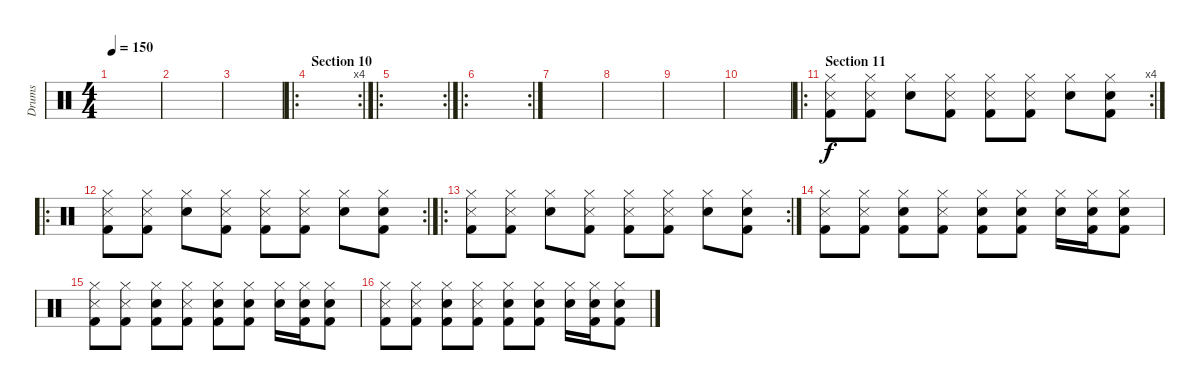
\track ("Drums" "Drums") {instrument percussion}
\staff {score}
\articulation defaults
\ts (4 4)
\tempo 150
\clef neutral
\ks c
|
|
|
\ro
\rc 4
\section ("" "Section 10")
|
\ro
\rc 2
|
\ro
\rc 2
|
|
|
|
|
\ro
\rc 4
\section ("" "Section 11")
("Hi-Hat (closed)" "Snare (side stick) 3" "Kick (hit) 2").8 ("Hi-Hat (closed)" "Snare (side stick) 3" "Kick (hit) 2").8 ("Hi-Hat (closed)" "Snare (hit) 2").8 ("Hi-Hat (closed)" "Snare (side stick) 3" "Kick (hit) 2").8 ("Hi-Hat (closed)" "Snare (side stick) 3" "Kick (hit) 2").8 ("Hi-Hat (closed)" "Snare (side stick) 3" "Kick (hit) 2").8 ("Hi-Hat (closed)" "Snare (hit) 2").8 ("Hi-Hat (closed)" "Snare (hit) 2" "Kick (hit) 2").8 |
\ro
\rc 2
("Hi-Hat (closed)" "Snare (side stick) 3" "Kick (hit) 2").8 ("Hi-Hat (closed)" "Snare (side stick) 3" "Kick (hit) 2").8 ("Hi-Hat (closed)" "Snare (hit) 2").8 ("Hi-Hat (closed)" "Snare (side stick) 3" "Kick (hit) 2").8 ("Hi-Hat (closed)" "Snare (side stick) 3" "Kick (hit) 2").8 ("Hi-Hat (closed)" "Snare (side stick) 3" "Kick (hit) 2").8 ("Hi-Hat (closed)" "Snare (hit) 2").8 ("Hi-Hat (closed)" "Snare (hit) 2" "Kick (hit) 2").8 |
\ro
\rc 2
("Hi-Hat (closed)" "Snare (side stick) 3" "Kick (hit) 2").8 ("Hi-Hat (closed)" "Snare (side stick) 3" "Kick (hit) 2").8 ("Hi-Hat (closed)" "Snare (hit) 2").8 ("Hi-Hat (closed)" "Snare (side stick) 3" "Kick (hit) 2").8 ("Hi-Hat (closed)" "Snare (side stick) 3" "Kick (hit) 2").8 ("Hi-Hat (closed)" "Snare (side stick) 3" "Kick (hit) 2").8 ("Hi-Hat (closed)" "Snare (hit) 2").8 ("Hi-Hat (closed)" "Snare (hit) 2" "Kick (hit) 2").8 |
("Hi-Hat (closed)" "Snare (side stick) 3" "Kick (hit) 2").8 ("Hi-Hat (closed)" "Snare (side stick) 3" "Kick (hit) 2").8 ("Hi-Hat (closed)" "Snare (hit) 2" "Kick (hit) 2").8 ("Hi-Hat (closed)" "Snare (side stick) 3" "Kick (hit) 2").8 ("Hi-Hat (closed)" "Snare (hit) 2" "Kick (hit) 2").8 ("Hi-Hat (closed)" "Snare (hit) 2" "Kick (hit) 2").8 ("Hi-Hat (closed)" "Snare (hit) 2").16 ("Hi-Hat (closed)" "Snare (hit) 2" "Kick (hit) 2").16 ("Hi-Hat (closed)" "Snare (hit) 2" "Kick (hit) 2").8 |
("Hi-Hat (closed)" "Snare (side stick) 3" "Kick (hit) 2").8 ("Hi-Hat (closed)" "Snare (side stick) 3" "Kick (hit) 2").8 ("Hi-Hat (closed)" "Snare (hit) 2" "Kick (hit) 2").8 ("Hi-Hat (closed)" "Snare (side stick) 3" "Kick (hit) 2").8 ("Hi-Hat (closed)" "Snare (hit) 2" "Kick (hit) 2").8 ("Hi-Hat (closed)" "Snare (hit) 2" "Kick (hit) 2").8 ("Hi-Hat (closed)" "Snare (hit) 2").16 ("Hi-Hat (closed)" "Snare (hit) 2" "Kick (hit) 2").16 ("Hi-Hat (closed)" "Snare (hit) 2" "Kick (hit) 2").8 |
("Hi-Hat (closed)" "Snare (side stick) 3" "Kick (hit) 2").8 ("Hi-Hat (closed)" "Snare (side stick) 3" "Kick (hit) 2").8 ("Hi-Hat (closed)" "Snare (hit) 2" "Kick (hit) 2").8 ("Hi-Hat (closed)" "Snare (side stick) 3" "Kick (hit) 2").8 ("Hi-Hat (closed)" "Snare (hit) 2" "Kick (hit) 2").8 ("Hi-Hat (closed)" "Snare (hit) 2" "Kick (hit) 2").8 ("Hi-Hat (closed)" "Snare (hit) 2").16 ("Hi-Hat (closed)" "Snare (hit) 2" "Kick (hit) 2").16 ("Hi-Hat (closed)" "Snare (hit) 2" "Kick (hit) 2").8
